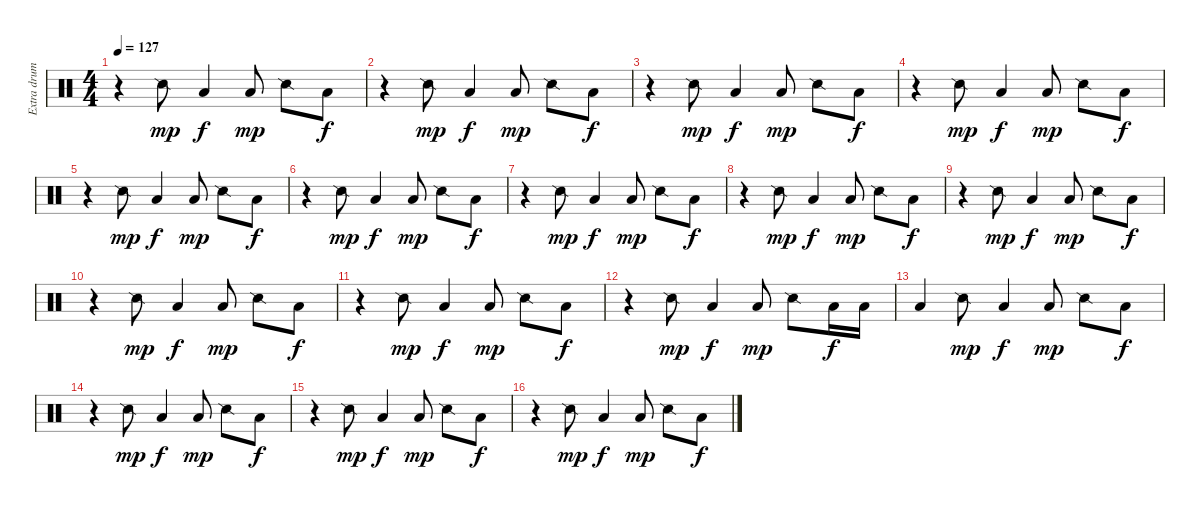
\track ("Extra drums" "Extra drum") {instrument percussion}
\staff {score}
\articulation defaults
\ts (4 4)
\tempo 127
\clef neutral
\ks c
r.4{dy f} "Snare (side stick) 2".8{dy mp} "Low Tom (hit)".4{dy f} "Low Tom (hit)".8{dy mp} "Snare (side stick) 2".8 "Low Tom (hit)".8{dy f} |
r.4 "Snare (side stick) 2".8{dy mp} "Low Tom (hit)".4{dy f} "Low Tom (hit)".8{dy mp} "Snare (side stick) 2".8 "Low Tom (hit)".8{dy f} |
r.4 "Snare (side stick) 2".8{dy mp} "Low Tom (hit)".4{dy f} "Low Tom (hit)".8{dy mp} "Snare (side stick) 2".8 "Low Tom (hit)".8{dy f} |
r.4 "Snare (side stick) 2".8{dy mp} "Low Tom (hit)".4{dy f} "Low Tom (hit)".8{dy mp} "Snare (side stick) 2".8 "Low Tom (hit)".8{dy f} |
r.4 "Snare (side stick) 2".8{dy mp} "Low Tom (hit)".4{dy f} "Low Tom (hit)".8{dy mp} "Snare (side stick) 2".8 "Low Tom (hit)".8{dy f} |
r.4 "Snare (side stick) 2".8{dy mp} "Low Tom (hit)".4{dy f} "Low Tom (hit)".8{dy mp} "Snare (side stick) 2".8 "Low Tom (hit)".8{dy f} |
r.4 "Snare (side stick) 2".8{dy mp} "Low Tom (hit)".4{dy f} "Low Tom (hit)".8{dy mp} "Snare (side stick) 2".8 "Low Tom (hit)".8{dy f} |
r.4 "Snare (side stick) 2".8{dy mp} "Low Tom (hit)".4{dy f} "Low Tom (hit)".8{dy mp} "Snare (side stick) 2".8 "Low Tom (hit)".8{dy f} |
r.4 "Snare (side stick) 2".8{dy mp} "Low Tom (hit)".4{dy f} "Low Tom (hit)".8{dy mp} "Snare (side stick) 2".8 "Low Tom (hit)".8{dy f} |
r.4 "Snare (side stick) 2".8{dy mp} "Low Tom (hit)".4{dy f} "Low Tom (hit)".8{dy mp} "Snare (side stick) 2".8 "Low Tom (hit)".8{dy f} |
r.4 "Snare (side stick) 2".8{dy mp} "Low Tom (hit)".4{dy f} "Low Tom (hit)".8{dy mp} "Snare (side stick) 2".8 "Low Tom (hit)".8{dy f} |
r.4 "Snare (side stick) 2".8{dy mp} "Low Tom (hit)".4{dy f} "Low Tom (hit)".8{dy mp} "Snare (side stick) 2".8 "Low Tom (hit)".16{dy f} "Low Tom (hit)".16 |
"Low Tom (hit)".4 "Snare (side stick) 2".8{dy mp} "Low Tom (hit)".4{dy f} "Low Tom (hit)".8{dy mp} "Snare (side stick) 2".8 "Low Tom (hit)".8{dy f} |
r.4 "Snare (side stick) 2".8{dy mp} "Low Tom (hit)".4{dy f} "Low Tom (hit)".8{dy mp} "Snare (side stick) 2".8 "Low Tom (hit)".8{dy f} |
r.4 "Snare (side stick) 2".8{dy mp} "Low Tom (hit)".4{dy f} "Low Tom (hit)".8{dy mp} "Snare (side stick) 2".8 "Low Tom (hit)".8{dy f} |
r.4 "Snare (side stick) 2".8{dy mp} "Low Tom (hit)".4{dy f} "Low Tom (hit)".8{dy mp} "Snare (side stick) 2".8 "Low Tom (hit)".8{dy f}
